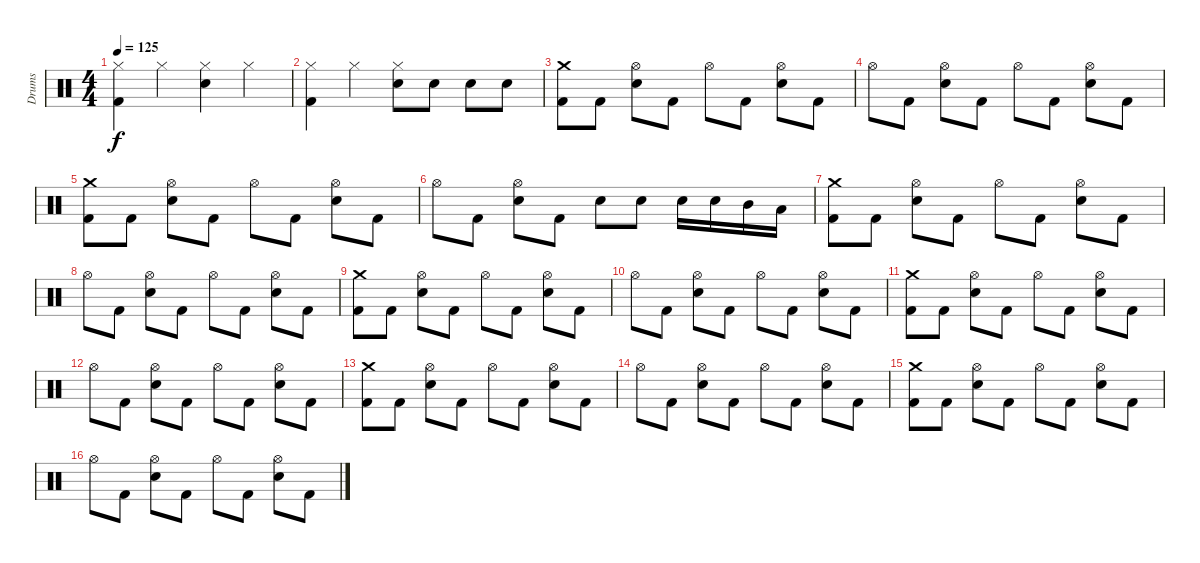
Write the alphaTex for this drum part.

\track ("Drums" "Drums") {instrument percussion}
\staff {score}
\articulation defaults
\ts (4 4)
\tempo 125
\clef neutral
\ks c
("Hi-Hat (closed)" "Kick (hit) 2").4{dy f} "Hi-Hat (closed)".4 ("Hi-Hat (closed)" "Electric Snare (hit)").4 "Hi-Hat (closed)".4 |
("Hi-Hat (closed)" "Kick (hit) 2").4 "Hi-Hat (closed)".4 ("Hi-Hat (closed)" "Electric Snare (hit)").8 "Electric Snare (hit)".8 "Electric Snare (hit)".8 "Electric Snare (hit)".8 |
("Crash medium (hit)" "Kick (hit) 2").8 "Kick (hit) 2".8 ("Hi-Hat (open)" "Electric Snare (hit)").8 "Kick (hit) 2".8 "Hi-Hat (open)".8 "Kick (hit) 2".8 ("Hi-Hat (open)" "Electric Snare (hit)").8 "Kick (hit) 2".8 |
"Hi-Hat (open)".8 "Kick (hit) 2".8 ("Hi-Hat (open)" "Electric Snare (hit)").8 "Kick (hit) 2".8 "Hi-Hat (open)".8 "Kick (hit) 2".8 ("Hi-Hat (open)" "Electric Snare (hit)").8 "Kick (hit) 2".8 |
("Crash medium (hit)" "Kick (hit) 2").8 "Kick (hit) 2".8 ("Hi-Hat (open)" "Electric Snare (hit)").8 "Kick (hit) 2".8 "Hi-Hat (open)".8 "Kick (hit) 2".8 ("Hi-Hat (open)" "Electric Snare (hit)").8 "Kick (hit) 2".8 |
"Hi-Hat (open)".8 "Kick (hit) 2".8 ("Hi-Hat (open)" "Electric Snare (hit)").8 "Kick (hit) 2".8 "Electric Snare (hit)".8 "Electric Snare (hit)".8 "Electric Snare (hit)".16 "Electric Snare (hit)".16 "Mid Tom (hit)".16 "Low Tom (hit)".16 |
("Crash medium (hit)" "Kick (hit) 2").8 "Kick (hit) 2".8 ("Hi-Hat (open)" "Electric Snare (hit)").8 "Kick (hit) 2".8 "Hi-Hat (open)".8 "Kick (hit) 2".8 ("Hi-Hat (open)" "Electric Snare (hit)").8 "Kick (hit) 2".8 |
"Hi-Hat (open)".8 "Kick (hit) 2".8 ("Hi-Hat (open)" "Electric Snare (hit)").8 "Kick (hit) 2".8 "Hi-Hat (open)".8 "Kick (hit) 2".8 ("Hi-Hat (open)" "Electric Snare (hit)").8 "Kick (hit) 2".8 |
("Crash medium (hit)" "Kick (hit) 2").8 "Kick (hit) 2".8 ("Hi-Hat (open)" "Electric Snare (hit)").8 "Kick (hit) 2".8 "Hi-Hat (open)".8 "Kick (hit) 2".8 ("Hi-Hat (open)" "Electric Snare (hit)").8 "Kick (hit) 2".8 |
"Hi-Hat (open)".8 "Kick (hit) 2".8 ("Hi-Hat (open)" "Electric Snare (hit)").8 "Kick (hit) 2".8 "Hi-Hat (open)".8 "Kick (hit) 2".8 ("Hi-Hat (open)" "Electric Snare (hit)").8 "Kick (hit) 2".8 |
("Crash medium (hit)" "Kick (hit) 2").8 "Kick (hit) 2".8 ("Hi-Hat (open)" "Electric Snare (hit)").8 "Kick (hit) 2".8 "Hi-Hat (open)".8 "Kick (hit) 2".8 ("Hi-Hat (open)" "Electric Snare (hit)").8 "Kick (hit) 2".8 |
"Hi-Hat (open)".8 "Kick (hit) 2".8 ("Hi-Hat (open)" "Electric Snare (hit)").8 "Kick (hit) 2".8 "Hi-Hat (open)".8 "Kick (hit) 2".8 ("Hi-Hat (open)" "Electric Snare (hit)").8 "Kick (hit) 2".8 |
("Crash medium (hit)" "Kick (hit) 2").8 "Kick (hit) 2".8 ("Hi-Hat (open)" "Electric Snare (hit)").8 "Kick (hit) 2".8 "Hi-Hat (open)".8 "Kick (hit) 2".8 ("Hi-Hat (open)" "Electric Snare (hit)").8 "Kick (hit) 2".8 |
"Hi-Hat (open)".8 "Kick (hit) 2".8 ("Hi-Hat (open)" "Electric Snare (hit)").8 "Kick (hit) 2".8 "Hi-Hat (open)".8 "Kick (hit) 2".8 ("Hi-Hat (open)" "Electric Snare (hit)").8 "Kick (hit) 2".8 |
("Crash medium (hit)" "Kick (hit) 2").8 "Kick (hit) 2".8 ("Hi-Hat (open)" "Electric Snare (hit)").8 "Kick (hit) 2".8 "Hi-Hat (open)".8 "Kick (hit) 2".8 ("Hi-Hat (open)" "Electric Snare (hit)").8 "Kick (hit) 2".8 |
"Hi-Hat (open)".8 "Kick (hit) 2".8 ("Hi-Hat (open)" "Electric Snare (hit)").8 "Kick (hit) 2".8 "Hi-Hat (open)".8 "Kick (hit) 2".8 ("Hi-Hat (open)" "Electric Snare (hit)").8 "Kick (hit) 2".8
